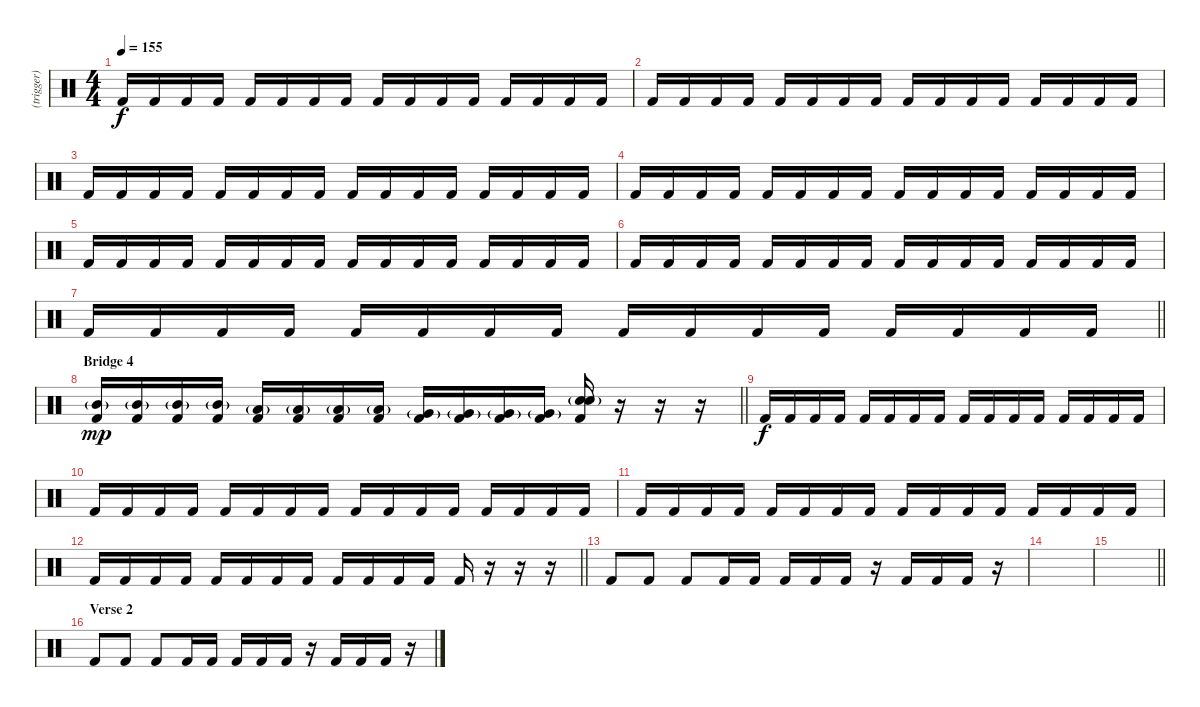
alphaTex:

\track ("(trigger)" "(trigger)") {instrument percussion}
\staff {score}
\articulation defaults
\ts (4 4)
\tempo 155
\clef neutral
\ks c "Kick (hit) 2".16{dy f} "Kick (hit) 2".16 "Kick (hit) 2".16 "Kick (hit) 2".16 "Kick (hit) 2".16 "Kick (hit) 2".16 "Kick (hit) 2".16 "Kick (hit) 2".16 "Kick (hit) 2".16 "Kick (hit) 2".16 "Kick (hit) 2".16 "Kick (hit) 2".16 "Kick (hit) 2".16 "Kick (hit) 2".16 "Kick (hit) 2".16 "Kick (hit) 2".16
|
"Kick (hit) 2".16 "Kick (hit) 2".16 "Kick (hit) 2".16 "Kick (hit) 2".16 "Kick (hit) 2".16 "Kick (hit) 2".16 "Kick (hit) 2".16 "Kick (hit) 2".16 "Kick (hit) 2".16 "Kick (hit) 2".16 "Kick (hit) 2".16 "Kick (hit) 2".16 "Kick (hit) 2".16 "Kick (hit) 2".16 "Kick (hit) 2".16 "Kick (hit) 2".16 |
"Kick (hit) 2".16 "Kick (hit) 2".16 "Kick (hit) 2".16 "Kick (hit) 2".16 "Kick (hit) 2".16 "Kick (hit) 2".16 "Kick (hit) 2".16 "Kick (hit) 2".16 "Kick (hit) 2".16 "Kick (hit) 2".16 "Kick (hit) 2".16 "Kick (hit) 2".16 "Kick (hit) 2".16 "Kick (hit) 2".16 "Kick (hit) 2".16 "Kick (hit) 2".16 |
"Kick (hit) 2".16 "Kick (hit) 2".16 "Kick (hit) 2".16 "Kick (hit) 2".16 "Kick (hit) 2".16 "Kick (hit) 2".16 "Kick (hit) 2".16 "Kick (hit) 2".16 "Kick (hit) 2".16 "Kick (hit) 2".16 "Kick (hit) 2".16 "Kick (hit) 2".16 "Kick (hit) 2".16 "Kick (hit) 2".16 "Kick (hit) 2".16 "Kick (hit) 2".16 |
"Kick (hit) 2".16 "Kick (hit) 2".16 "Kick (hit) 2".16 "Kick (hit) 2".16 "Kick (hit) 2".16 "Kick (hit) 2".16 "Kick (hit) 2".16 "Kick (hit) 2".16 "Kick (hit) 2".16 "Kick (hit) 2".16 "Kick (hit) 2".16 "Kick (hit) 2".16 "Kick (hit) 2".16 "Kick (hit) 2".16 "Kick (hit) 2".16 "Kick (hit) 2".16 |
"Kick (hit) 2".16 "Kick (hit) 2".16 "Kick (hit) 2".16 "Kick (hit) 2".16 "Kick (hit) 2".16 "Kick (hit) 2".16 "Kick (hit) 2".16 "Kick (hit) 2".16 "Kick (hit) 2".16 "Kick (hit) 2".16 "Kick (hit) 2".16 "Kick (hit) 2".16 "Kick (hit) 2".16 "Kick (hit) 2".16 "Kick (hit) 2".16 "Kick (hit) 2".16 |
\barLineRight lightlight "Kick (hit) 2".16 "Kick (hit) 2".16 "Kick (hit) 2".16 "Kick (hit) 2".16 "Kick (hit) 2".16 "Kick (hit) 2".16 "Kick (hit) 2".16 "Kick (hit) 2".16 "Kick (hit) 2".16 "Kick (hit) 2".16 "Kick (hit) 2".16 "Kick (hit) 2".16 "Kick (hit) 2".16 "Kick (hit) 2".16 "Kick (hit) 2".16 "Kick (hit) 2".16
|
\section ("" "Bridge 4")
\barLineRight lightlight
("Mid Tom (hit)"{g} "Kick (hit) 2").16{dy mp} ("Mid Tom (hit)"{g} "Kick (hit) 2").16 ("Mid Tom (hit)"{g} "Kick (hit) 2").16 ("Mid Tom (hit)"{g} "Kick (hit) 2").16 ("Low Tom (hit)"{g} "Kick (hit) 2").16 ("Low Tom (hit)"{g} "Kick (hit) 2").16 ("Low Tom (hit)"{g} "Kick (hit) 2").16 ("Low Tom (hit)"{g} "Kick (hit) 2").16 ("Very Low Tom (hit)"{g} "Kick (hit) 2").16 ("Very Low Tom (hit)"{g} "Kick (hit) 2").16 ("Very Low Tom (hit)"{g} "Kick (hit) 2").16 ("Very Low Tom (hit)"{g} "Kick (hit) 2").16 ("Snare (hit) 2"{g} "Snare (hit) 2"{g} "Kick (hit) 2").16 r.16 r.16 r.16 |
"Kick (hit) 2".16{dy f} "Kick (hit) 2".16 "Kick (hit) 2".16 "Kick (hit) 2".16 "Kick (hit) 2".16 "Kick (hit) 2".16 "Kick (hit) 2".16 "Kick (hit) 2".16 "Kick (hit) 2".16 "Kick (hit) 2".16 "Kick (hit) 2".16 "Kick (hit) 2".16 "Kick (hit) 2".16 "Kick (hit) 2".16 "Kick (hit) 2".16 "Kick (hit) 2".16 |
"Kick (hit) 2".16 "Kick (hit) 2".16 "Kick (hit) 2".16 "Kick (hit) 2".16 "Kick (hit) 2".16 "Kick (hit) 2".16 "Kick (hit) 2".16 "Kick (hit) 2".16 "Kick (hit) 2".16 "Kick (hit) 2".16 "Kick (hit) 2".16 "Kick (hit) 2".16 "Kick (hit) 2".16 "Kick (hit) 2".16 "Kick (hit) 2".16 "Kick (hit) 2".16 |
"Kick (hit) 2".16 "Kick (hit) 2".16 "Kick (hit) 2".16 "Kick (hit) 2".16 "Kick (hit) 2".16 "Kick (hit) 2".16 "Kick (hit) 2".16 "Kick (hit) 2".16 "Kick (hit) 2".16 "Kick (hit) 2".16 "Kick (hit) 2".16 "Kick (hit) 2".16 "Kick (hit) 2".16 "Kick (hit) 2".16 "Kick (hit) 2".16 "Kick (hit) 2".16 |
\barLineRight lightlight "Kick (hit) 2".16 "Kick (hit) 2".16 "Kick (hit) 2".16 "Kick (hit) 2".16 "Kick (hit) 2".16 "Kick (hit) 2".16 "Kick (hit) 2".16 "Kick (hit) 2".16 "Kick (hit) 2".16 "Kick (hit) 2".16 "Kick (hit) 2".16 "Kick (hit) 2".16 "Kick (hit) 2".16
r.16 r.16 r.16 |
"Kick (hit) 2".8 "Kick (hit) 2".8 "Kick (hit) 2".8 "Kick (hit) 2".16 "Kick (hit) 2".16 "Kick (hit) 2".16 "Kick (hit) 2".16 "Kick (hit) 2".16 r.16 "Kick (hit) 2".16 "Kick (hit) 2".16 "Kick (hit) 2".16 r.16 |
|
\barLineRight lightlight
|
\section ("" "Verse 2")
"Kick (hit) 2".8 "Kick (hit) 2".8 "Kick (hit) 2".8 "Kick (hit) 2".16 "Kick (hit) 2".16 "Kick (hit) 2".16 "Kick (hit) 2".16 "Kick (hit) 2".16 r.16 "Kick (hit) 2".16 "Kick (hit) 2".16 "Kick (hit) 2".16 r.16
